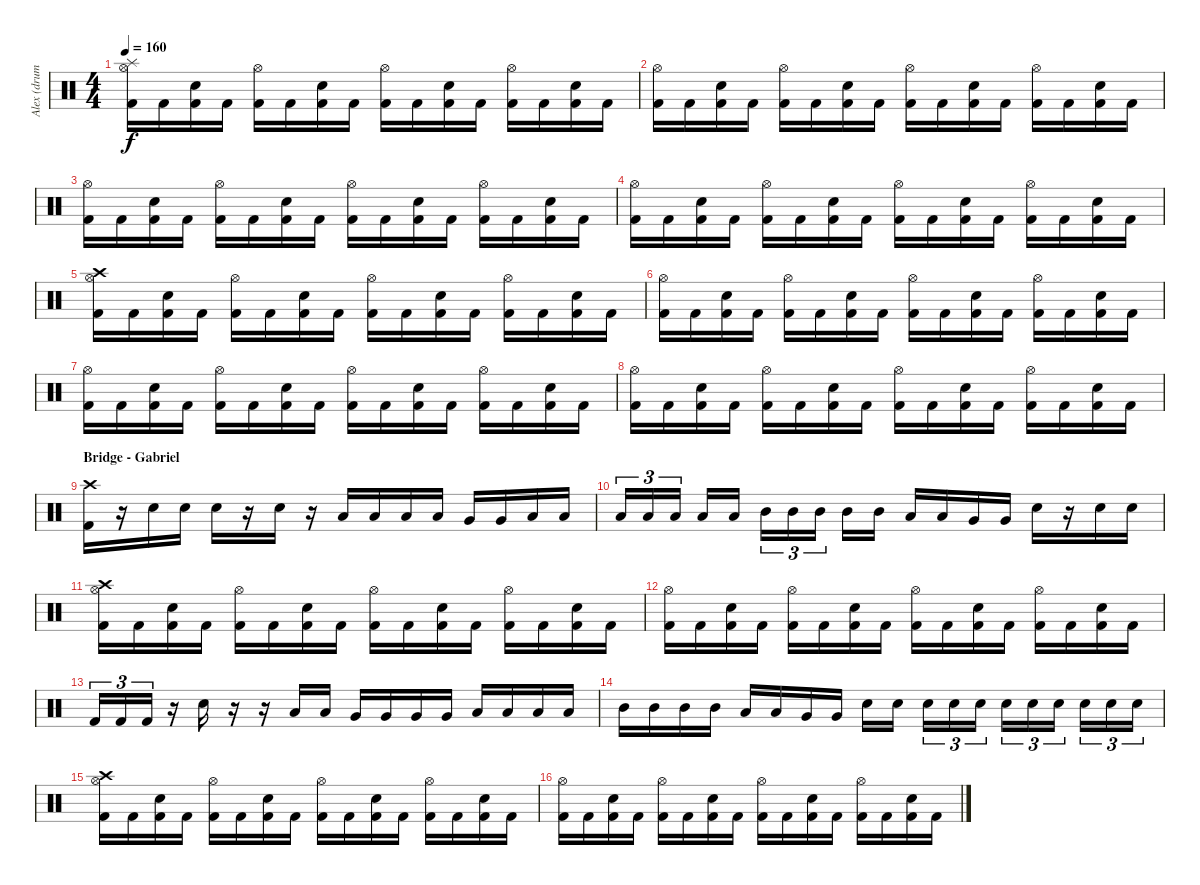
\track ("Alex (drums)" "Alex (drum") {instrument percussion}
\staff {score}
\articulation defaults
\ts (4 4)
\tempo 160
\clef neutral
\ks c
("Hi-Hat (open)" "Kick (hit) 2" "Splash (hit)").16{dy f} "Kick (hit) 2".16 ("Snare (hit) 2" "Kick (hit) 2").16 "Kick (hit) 2".16 ("Hi-Hat (open)" "Kick (hit) 2").16 "Kick (hit) 2".16 ("Snare (hit) 2" "Kick (hit) 2").16 "Kick (hit) 2".16 ("Hi-Hat (open)" "Kick (hit) 2").16 "Kick (hit) 2".16 ("Snare (hit) 2" "Kick (hit) 2").16 "Kick (hit) 2".16 ("Hi-Hat (open)" "Kick (hit) 2").16 "Kick (hit) 2".16 ("Snare (hit) 2" "Kick (hit) 2").16 "Kick (hit) 2".16 |
("Hi-Hat (open)" "Kick (hit) 2").16 "Kick (hit) 2".16 ("Snare (hit) 2" "Kick (hit) 2").16 "Kick (hit) 2".16 ("Hi-Hat (open)" "Kick (hit) 2").16 "Kick (hit) 2".16 ("Snare (hit) 2" "Kick (hit) 2").16 "Kick (hit) 2".16 ("Hi-Hat (open)" "Kick (hit) 2").16 "Kick (hit) 2".16 ("Snare (hit) 2" "Kick (hit) 2").16 "Kick (hit) 2".16 ("Hi-Hat (open)" "Kick (hit) 2").16 "Kick (hit) 2".16 ("Snare (hit) 2" "Kick (hit) 2").16 "Kick (hit) 2".16 |
("Hi-Hat (open)" "Kick (hit) 2").16 "Kick (hit) 2".16 ("Snare (hit) 2" "Kick (hit) 2").16 "Kick (hit) 2".16 ("Hi-Hat (open)" "Kick (hit) 2").16 "Kick (hit) 2".16 ("Snare (hit) 2" "Kick (hit) 2").16 "Kick (hit) 2".16 ("Hi-Hat (open)" "Kick (hit) 2").16 "Kick (hit) 2".16 ("Snare (hit) 2" "Kick (hit) 2").16 "Kick (hit) 2".16 ("Hi-Hat (open)" "Kick (hit) 2").16 "Kick (hit) 2".16 ("Snare (hit) 2" "Kick (hit) 2").16 "Kick (hit) 2".16 |
("Hi-Hat (open)" "Kick (hit) 2").16 "Kick (hit) 2".16 ("Snare (hit) 2" "Kick (hit) 2").16 "Kick (hit) 2".16 ("Hi-Hat (open)" "Kick (hit) 2").16 "Kick (hit) 2".16 ("Snare (hit) 2" "Kick (hit) 2").16 "Kick (hit) 2".16 ("Hi-Hat (open)" "Kick (hit) 2").16 "Kick (hit) 2".16 ("Snare (hit) 2" "Kick (hit) 2").16 "Kick (hit) 2".16 ("Hi-Hat (open)" "Kick (hit) 2").16 "Kick (hit) 2".16 ("Snare (hit) 2" "Kick (hit) 2").16 "Kick (hit) 2".16 |
("Hi-Hat (open)" "Kick (hit) 2" "Crash high (hit)").16 "Kick (hit) 2".16 ("Snare (hit) 2" "Kick (hit) 2").16 "Kick (hit) 2".16 ("Hi-Hat (open)" "Kick (hit) 2").16 "Kick (hit) 2".16 ("Snare (hit) 2" "Kick (hit) 2").16 "Kick (hit) 2".16 ("Hi-Hat (open)" "Kick (hit) 2").16 "Kick (hit) 2".16 ("Snare (hit) 2" "Kick (hit) 2").16 "Kick (hit) 2".16 ("Hi-Hat (open)" "Kick (hit) 2").16 "Kick (hit) 2".16 ("Snare (hit) 2" "Kick (hit) 2").16 "Kick (hit) 2".16 |
("Hi-Hat (open)" "Kick (hit) 2").16 "Kick (hit) 2".16 ("Snare (hit) 2" "Kick (hit) 2").16 "Kick (hit) 2".16 ("Hi-Hat (open)" "Kick (hit) 2").16 "Kick (hit) 2".16 ("Snare (hit) 2" "Kick (hit) 2").16 "Kick (hit) 2".16 ("Hi-Hat (open)" "Kick (hit) 2").16 "Kick (hit) 2".16 ("Snare (hit) 2" "Kick (hit) 2").16 "Kick (hit) 2".16 ("Hi-Hat (open)" "Kick (hit) 2").16 "Kick (hit) 2".16 ("Snare (hit) 2" "Kick (hit) 2").16 "Kick (hit) 2".16 |
("Hi-Hat (open)" "Kick (hit) 2").16 "Kick (hit) 2".16 ("Snare (hit) 2" "Kick (hit) 2").16 "Kick (hit) 2".16 ("Hi-Hat (open)" "Kick (hit) 2").16 "Kick (hit) 2".16 ("Snare (hit) 2" "Kick (hit) 2").16 "Kick (hit) 2".16 ("Hi-Hat (open)" "Kick (hit) 2").16 "Kick (hit) 2".16 ("Snare (hit) 2" "Kick (hit) 2").16 "Kick (hit) 2".16 ("Hi-Hat (open)" "Kick (hit) 2").16 "Kick (hit) 2".16 ("Snare (hit) 2" "Kick (hit) 2").16 "Kick (hit) 2".16 |
("Hi-Hat (open)" "Kick (hit) 2").16 "Kick (hit) 2".16 ("Snare (hit) 2" "Kick (hit) 2").16 "Kick (hit) 2".16 ("Hi-Hat (open)" "Kick (hit) 2").16 "Kick (hit) 2".16 ("Snare (hit) 2" "Kick (hit) 2").16 "Kick (hit) 2".16 ("Hi-Hat (open)" "Kick (hit) 2").16 "Kick (hit) 2".16 ("Snare (hit) 2" "Kick (hit) 2").16 "Kick (hit) 2".16 ("Hi-Hat (open)" "Kick (hit) 2").16 "Kick (hit) 2".16 ("Snare (hit) 2" "Kick (hit) 2").16 "Kick (hit) 2".16 |
\section ("" "Bridge - Gabriel")
("Kick (hit) 2" "Crash high (hit)").16 r.16 "Snare (hit) 2".16 "Snare (hit) 2".16 "Snare (hit) 2".16 r.16 "Snare (hit) 2".16 r.16 "Low Tom (hit)".16 "Low Tom (hit)".16 "Low Tom (hit)".16 "Low Tom (hit)".16 "Very Low Tom (hit)".16 "Very Low Tom (hit)".16 "Low Tom (hit)".16 "Low Tom (hit)".16 |
"Low Tom (hit)".16{tu (3 2)} "Low Tom (hit)".16{tu (3 2)} "Low Tom (hit)".16{tu (3 2)} "Low Tom (hit)".16 "Low Tom (hit)".16 "Mid Tom (hit)".16{tu (3 2)} "Mid Tom (hit)".16{tu (3 2)} "Mid Tom (hit)".16{tu (3 2)} "Mid Tom (hit)".16 "Mid Tom (hit)".16 "Low Tom (hit)".16 "Low Tom (hit)".16 "Very Low Tom (hit)".16 "Very Low Tom (hit)".16 "Snare (hit) 2".16 r.16 "Snare (hit) 2".16 "Snare (hit) 2".16 |
("Hi-Hat (open)" "Kick (hit) 2" "Crash high (hit)").16 "Kick (hit) 2".16 ("Snare (hit) 2" "Kick (hit) 2").16 "Kick (hit) 2".16 ("Hi-Hat (open)" "Kick (hit) 2").16 "Kick (hit) 2".16 ("Snare (hit) 2" "Kick (hit) 2").16 "Kick (hit) 2".16 ("Hi-Hat (open)" "Kick (hit) 2").16 "Kick (hit) 2".16 ("Snare (hit) 2" "Kick (hit) 2").16 "Kick (hit) 2".16 ("Hi-Hat (open)" "Kick (hit) 2").16 "Kick (hit) 2".16 ("Snare (hit) 2" "Kick (hit) 2").16 "Kick (hit) 2".16 |
("Hi-Hat (open)" "Kick (hit) 2").16 "Kick (hit) 2".16 ("Snare (hit) 2" "Kick (hit) 2").16 "Kick (hit) 2".16 ("Hi-Hat (open)" "Kick (hit) 2").16 "Kick (hit) 2".16 ("Snare (hit) 2" "Kick (hit) 2").16 "Kick (hit) 2".16 ("Hi-Hat (open)" "Kick (hit) 2").16 "Kick (hit) 2".16 ("Snare (hit) 2" "Kick (hit) 2").16 "Kick (hit) 2".16 ("Hi-Hat (open)" "Kick (hit) 2").16 "Kick (hit) 2".16 ("Snare (hit) 2" "Kick (hit) 2").16 "Kick (hit) 2".16 |
"Kick (hit) 2".16{tu (3 2)} "Kick (hit) 2".16{tu (3 2)} "Kick (hit) 2".16{tu (3 2)} r.16 "Snare (hit) 2".16 r.16 r.16 "Low Tom (hit)".16 "Low Tom (hit)".16 "Very Low Tom (hit)".16 "Very Low Tom (hit)".16 "Very Low Tom (hit)".16 "Very Low Tom (hit)".16 "Low Tom (hit)".16 "Low Tom (hit)".16 "Low Tom (hit)".16 "Low Tom (hit)".16 |
"Mid Tom (hit)".16 "Mid Tom (hit)".16 "Mid Tom (hit)".16 "Mid Tom (hit)".16 "Low Tom (hit)".16 "Low Tom (hit)".16 "Very Low Tom (hit)".16 "Very Low Tom (hit)".16 "Snare (hit) 2".16 "Snare (hit) 2".16 "Snare (hit) 2".16{tu (3 2)} "Snare (hit) 2".16{tu (3 2)} "Snare (hit) 2".16{tu (3 2)} "Snare (hit) 2".16{tu (3 2)} "Snare (hit) 2".16{tu (3 2)} "Snare (hit) 2".16{tu (3 2)} "Snare (hit) 2".16{tu (3 2)} "Snare (hit) 2".16{tu (3 2)} "Snare (hit) 2".16{tu (3 2)} |
("Hi-Hat (open)" "Kick (hit) 2" "Crash high (hit)").16 "Kick (hit) 2".16 ("Snare (hit) 2" "Kick (hit) 2").16 "Kick (hit) 2".16 ("Hi-Hat (open)" "Kick (hit) 2").16 "Kick (hit) 2".16 ("Snare (hit) 2" "Kick (hit) 2").16 "Kick (hit) 2".16 ("Hi-Hat (open)" "Kick (hit) 2").16 "Kick (hit) 2".16 ("Snare (hit) 2" "Kick (hit) 2").16 "Kick (hit) 2".16 ("Hi-Hat (open)" "Kick (hit) 2").16 "Kick (hit) 2".16 ("Snare (hit) 2" "Kick (hit) 2").16 "Kick (hit) 2".16 |
("Hi-Hat (open)" "Kick (hit) 2").16 "Kick (hit) 2".16 ("Snare (hit) 2" "Kick (hit) 2").16 "Kick (hit) 2".16 ("Hi-Hat (open)" "Kick (hit) 2").16 "Kick (hit) 2".16 ("Snare (hit) 2" "Kick (hit) 2").16 "Kick (hit) 2".16 ("Hi-Hat (open)" "Kick (hit) 2").16 "Kick (hit) 2".16 ("Snare (hit) 2" "Kick (hit) 2").16 "Kick (hit) 2".16 ("Hi-Hat (open)" "Kick (hit) 2").16 "Kick (hit) 2".16 ("Snare (hit) 2" "Kick (hit) 2").16 "Kick (hit) 2".16
